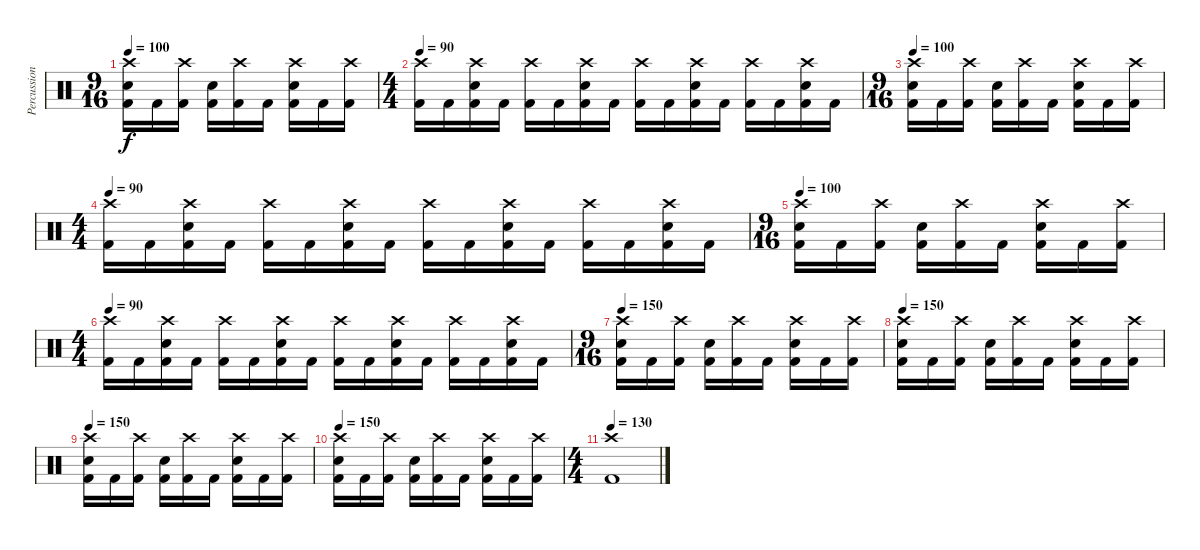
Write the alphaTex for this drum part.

\track ("Percussion" "Percussion") {instrument percussion}
\staff {score}
\articulation defaults
\ts (9 16)
\tempo 100
\clef neutral
\ks c
("Crash high (hit)" "Snare (hit) 2" "Kick (hit) 2").16{dy f} "Kick (hit) 2".16 ("Crash high (hit)" "Kick (hit) 2").16 ("Snare (hit) 2" "Kick (hit) 2").16 ("Crash high (hit)" "Kick (hit) 2").16 "Kick (hit) 2".16 ("Crash high (hit)" "Snare (hit) 2" "Kick (hit) 2").16 "Kick (hit) 2".16 ("Crash high (hit)" "Kick (hit) 2").16 |
\ts (4 4)
\tempo 90
("Crash high (hit)" "Kick (hit) 2").16 "Kick (hit) 2".16 ("Crash high (hit)" "Snare (hit) 2" "Kick (hit) 2").16 "Kick (hit) 2".16 ("Crash high (hit)" "Kick (hit) 2").16 "Kick (hit) 2".16 ("Crash high (hit)" "Snare (hit) 2" "Kick (hit) 2").16 "Kick (hit) 2".16 ("Crash high (hit)" "Kick (hit) 2").16 "Kick (hit) 2".16 ("Crash high (hit)" "Snare (hit) 2" "Kick (hit) 2").16 "Kick (hit) 2".16 ("Crash high (hit)" "Kick (hit) 2").16 "Kick (hit) 2".16 ("Crash high (hit)" "Snare (hit) 2" "Kick (hit) 2").16 "Kick (hit) 2".16 |
\ts (9 16)
\tempo 100
("Crash high (hit)" "Snare (hit) 2" "Kick (hit) 2").16 "Kick (hit) 2".16 ("Crash high (hit)" "Kick (hit) 2").16 ("Snare (hit) 2" "Kick (hit) 2").16 ("Crash high (hit)" "Kick (hit) 2").16 "Kick (hit) 2".16 ("Crash high (hit)" "Snare (hit) 2" "Kick (hit) 2").16 "Kick (hit) 2".16 ("Crash high (hit)" "Kick (hit) 2").16 |
\ts (4 4)
\tempo 90
("Crash high (hit)" "Kick (hit) 2").16 "Kick (hit) 2".16 ("Crash high (hit)" "Snare (hit) 2" "Kick (hit) 2").16 "Kick (hit) 2".16 ("Crash high (hit)" "Kick (hit) 2").16 "Kick (hit) 2".16 ("Crash high (hit)" "Snare (hit) 2" "Kick (hit) 2").16 "Kick (hit) 2".16 ("Crash high (hit)" "Kick (hit) 2").16 "Kick (hit) 2".16 ("Crash high (hit)" "Snare (hit) 2" "Kick (hit) 2").16 "Kick (hit) 2".16 ("Crash high (hit)" "Kick (hit) 2").16 "Kick (hit) 2".16 ("Crash high (hit)" "Snare (hit) 2" "Kick (hit) 2").16 "Kick (hit) 2".16 |
\ts (9 16)
\tempo 100
("Crash high (hit)" "Snare (hit) 2" "Kick (hit) 2").16 "Kick (hit) 2".16 ("Crash high (hit)" "Kick (hit) 2").16 ("Snare (hit) 2" "Kick (hit) 2").16 ("Crash high (hit)" "Kick (hit) 2").16 "Kick (hit) 2".16 ("Crash high (hit)" "Snare (hit) 2" "Kick (hit) 2").16 "Kick (hit) 2".16 ("Crash high (hit)" "Kick (hit) 2").16 |
\ts (4 4)
\tempo 90
("Crash high (hit)" "Kick (hit) 2").16 "Kick (hit) 2".16 ("Crash high (hit)" "Snare (hit) 2" "Kick (hit) 2").16 "Kick (hit) 2".16 ("Crash high (hit)" "Kick (hit) 2").16 "Kick (hit) 2".16 ("Crash high (hit)" "Snare (hit) 2" "Kick (hit) 2").16 "Kick (hit) 2".16 ("Crash high (hit)" "Kick (hit) 2").16 "Kick (hit) 2".16 ("Crash high (hit)" "Snare (hit) 2" "Kick (hit) 2").16 "Kick (hit) 2".16 ("Crash high (hit)" "Kick (hit) 2").16 "Kick (hit) 2".16 ("Crash high (hit)" "Snare (hit) 2" "Kick (hit) 2").16 "Kick (hit) 2".16 |
\ts (9 16)
\tempo 150
("Crash high (hit)" "Snare (hit) 2" "Kick (hit) 2").16 "Kick (hit) 2".16 ("Crash high (hit)" "Kick (hit) 2").16 ("Snare (hit) 2" "Kick (hit) 2").16 ("Crash high (hit)" "Kick (hit) 2").16 "Kick (hit) 2".16 ("Crash high (hit)" "Snare (hit) 2" "Kick (hit) 2").16 "Kick (hit) 2".16 ("Crash high (hit)" "Kick (hit) 2").16 |
\tempo 150
("Crash high (hit)" "Snare (hit) 2" "Kick (hit) 2").16 "Kick (hit) 2".16 ("Crash high (hit)" "Kick (hit) 2").16 ("Snare (hit) 2" "Kick (hit) 2").16 ("Crash high (hit)" "Kick (hit) 2").16 "Kick (hit) 2".16 ("Crash high (hit)" "Snare (hit) 2" "Kick (hit) 2").16 "Kick (hit) 2".16 ("Crash high (hit)" "Kick (hit) 2").16 |
\tempo 150
("Crash high (hit)" "Snare (hit) 2" "Kick (hit) 2").16 "Kick (hit) 2".16 ("Crash high (hit)" "Kick (hit) 2").16 ("Snare (hit) 2" "Kick (hit) 2").16 ("Crash high (hit)" "Kick (hit) 2").16 "Kick (hit) 2".16 ("Crash high (hit)" "Snare (hit) 2" "Kick (hit) 2").16 "Kick (hit) 2".16 ("Crash high (hit)" "Kick (hit) 2").16 |
\tempo 150
("Crash high (hit)" "Snare (hit) 2" "Kick (hit) 2").16 "Kick (hit) 2".16 ("Crash high (hit)" "Kick (hit) 2").16 ("Snare (hit) 2" "Kick (hit) 2").16 ("Crash high (hit)" "Kick (hit) 2").16 "Kick (hit) 2".16 ("Crash high (hit)" "Snare (hit) 2" "Kick (hit) 2").16 "Kick (hit) 2".16 ("Crash high (hit)" "Kick (hit) 2").16 |
\ts (4 4)
\tempo 130
("Crash high (hit)" "Kick (hit) 2").1
